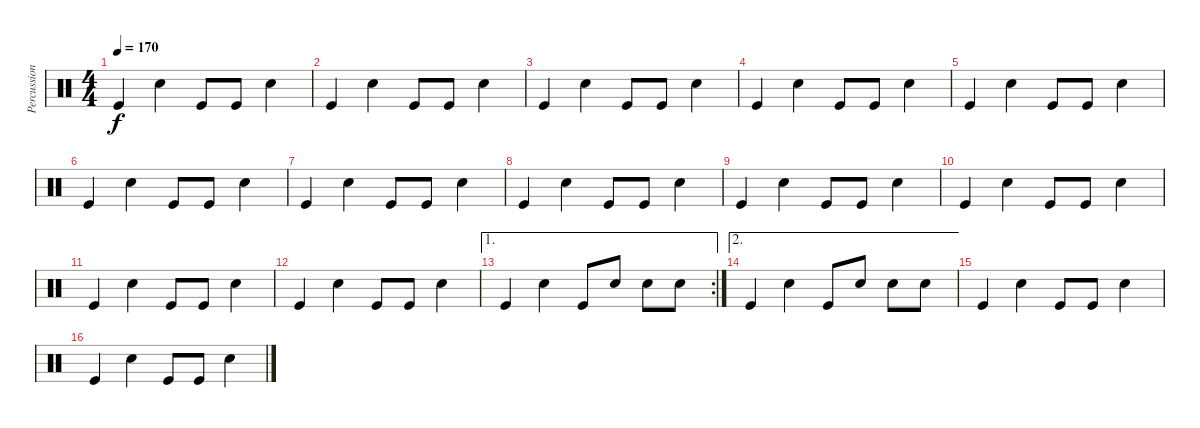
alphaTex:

\track ("Percussion" "Percussion") {instrument percussion}
\staff {score}
\articulation defaults
\ts (4 4)
\tempo 170
\clef neutral
\ks c "Kick (hit)".4{dy f} "Snare (hit) 2".4 "Kick (hit)".8 "Kick (hit)".8 "Snare (hit) 2".4
|
"Kick (hit)".4 "Snare (hit) 2".4 "Kick (hit)".8 "Kick (hit)".8 "Snare (hit) 2".4 |
"Kick (hit)".4 "Snare (hit) 2".4 "Kick (hit)".8 "Kick (hit)".8 "Snare (hit) 2".4 |
"Kick (hit)".4 "Snare (hit) 2".4 "Kick (hit)".8 "Kick (hit)".8 "Snare (hit) 2".4 |
"Kick (hit)".4 "Snare (hit) 2".4 "Kick (hit)".8 "Kick (hit)".8 "Snare (hit) 2".4 |
"Kick (hit)".4 "Snare (hit) 2".4 "Kick (hit)".8 "Kick (hit)".8 "Snare (hit) 2".4 |
"Kick (hit)".4 "Snare (hit) 2".4 "Kick (hit)".8 "Kick (hit)".8 "Snare (hit) 2".4 |
"Kick (hit)".4 "Snare (hit) 2".4 "Kick (hit)".8 "Kick (hit)".8 "Snare (hit) 2".4 |
"Kick (hit)".4 "Snare (hit) 2".4 "Kick (hit)".8 "Kick (hit)".8 "Snare (hit) 2".4 |
"Kick (hit)".4 "Snare (hit) 2".4 "Kick (hit)".8 "Kick (hit)".8 "Snare (hit) 2".4 |
"Kick (hit)".4 "Snare (hit) 2".4 "Kick (hit)".8 "Kick (hit)".8 "Snare (hit) 2".4 |
"Kick (hit)".4 "Snare (hit) 2".4 "Kick (hit)".8 "Kick (hit)".8 "Snare (hit) 2".4 |
\ae 1
\rc 2 "Kick (hit)".4 "Snare (hit) 2".4 "Kick (hit)".8 "Snare (hit) 2".8 "Snare (hit) 2".8 "Snare (hit) 2".8
|
\ae 2 "Kick (hit)".4 "Snare (hit) 2".4 "Kick (hit)".8 "Snare (hit) 2".8 "Snare (hit) 2".8 "Snare (hit) 2".8
|
"Kick (hit)".4 "Snare (hit) 2".4 "Kick (hit)".8 "Kick (hit)".8 "Snare (hit) 2".4 |
"Kick (hit)".4 "Snare (hit) 2".4 "Kick (hit)".8 "Kick (hit)".8 "Snare (hit) 2".4
